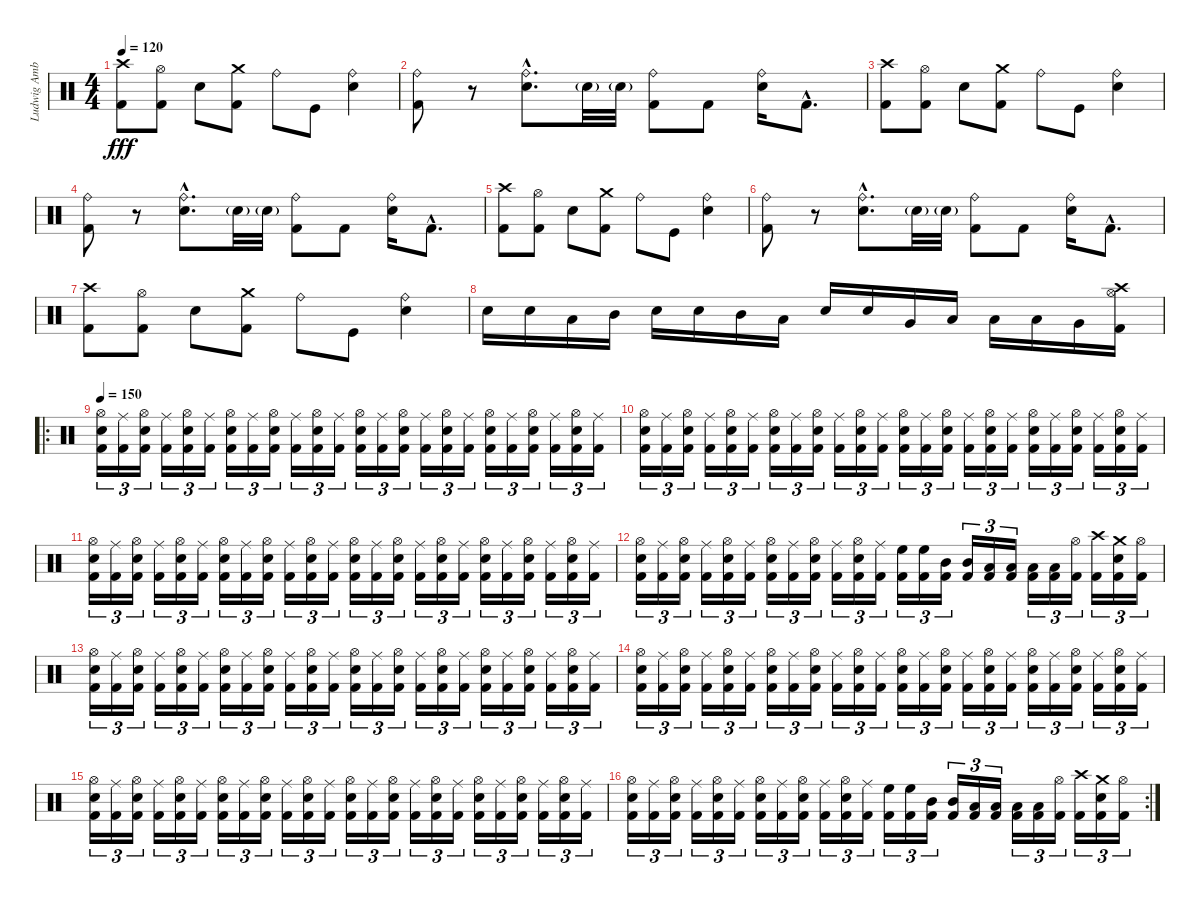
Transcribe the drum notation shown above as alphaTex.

\track ("Ludwig Amber Vistalite / 2x Bass Pedal" "Ludwig Amb") {instrument percussion}
\staff {score}
\articulation defaults
\ts (4 4)
\tempo 120
\clef neutral
\ks c
("Crash high (hit)" "Kick (hit) 2").8{dy fff balance 5} ("Hi-Hat (open)" "Kick (hit) 2").8 "Electric Snare (hit)".8 ("Crash medium (hit)" "Kick (hit) 2").8 "Ride (bell)".8 "Kick (hit)".8 ("Ride (bell)" "Electric Snare (hit)").4 |
("Ride (bell)" "Kick (hit) 2").8 r.8 ("Ride (bell)"{hac} "Electric Snare (hit)"{hac}).8{d} "Electric Snare (hit)"{g}.32 "Electric Snare (hit)"{g}.32 ("Ride (bell)" "Kick (hit) 2").8 "Kick (hit) 2".8 ("Ride (bell)" "Electric Snare (hit)").16 "Kick (hit) 2"{hac}.8{d} |
("Crash high (hit)" "Kick (hit) 2").8 ("Hi-Hat (open)" "Kick (hit) 2").8 "Electric Snare (hit)".8 ("Crash medium (hit)" "Kick (hit) 2").8 "Ride (bell)".8 "Kick (hit)".8 ("Ride (bell)" "Electric Snare (hit)").4 |
("Ride (bell)" "Kick (hit) 2").8 r.8 ("Ride (bell)"{hac} "Electric Snare (hit)"{hac}).8{d} "Electric Snare (hit)"{g}.32 "Electric Snare (hit)"{g}.32 ("Ride (bell)" "Kick (hit) 2").8 "Kick (hit) 2".8 ("Ride (bell)" "Electric Snare (hit)").16 "Kick (hit) 2"{hac}.8{d} |
("Crash high (hit)" "Kick (hit) 2").8 ("Hi-Hat (open)" "Kick (hit) 2").8 "Electric Snare (hit)".8 ("Crash medium (hit)" "Kick (hit) 2").8 "Ride (bell)".8 "Kick (hit)".8 ("Ride (bell)" "Electric Snare (hit)").4 |
("Ride (bell)" "Kick (hit) 2").8 r.8 ("Ride (bell)"{hac} "Electric Snare (hit)"{hac}).8{d} "Electric Snare (hit)"{g}.32 "Electric Snare (hit)"{g}.32 ("Ride (bell)" "Kick (hit) 2").8 "Kick (hit) 2".8 ("Ride (bell)" "Electric Snare (hit)").16 "Kick (hit) 2"{hac}.8{d} |
("Crash high (hit)" "Kick (hit) 2").8 ("Hi-Hat (open)" "Kick (hit) 2").8 "Electric Snare (hit)".8 ("Crash medium (hit)" "Kick (hit) 2").8 "Ride (bell)".8 "Kick (hit)".8 ("Ride (bell)" "Electric Snare (hit)").4 |
"Electric Snare (hit)".16 "Electric Snare (hit)".16 "Low Tom (hit)".16 "Mid Tom (hit)".16 "Electric Snare (hit)".16 "Electric Snare (hit)".16 "Mid Tom (hit)".16 "Low Tom (hit)".16 "Electric Snare (hit)".16 "Electric Snare (hit)".16 "Very Low Tom (hit)".16 "Low Floor Tom (hit)".16 "Low Tom (hit)".16 "Low Tom (hit)".16 "Very Low Tom (hit)".16 ("Hi-Hat (open)" "Crash high (hit)" "Kick (hit) 2").16 |
\ro
\tempo 150
("Hi-Hat (open)" "Electric Snare (hit)" "Kick (hit) 2").16{tu (3 2)} ("Ride (middle)" "Kick (hit) 2").16{tu (3 2)} ("Hi-Hat (open)" "Electric Snare (hit)" "Kick (hit) 2").16{tu (3 2)} ("Ride (middle)" "Kick (hit) 2").16{tu (3 2)} ("Hi-Hat (open)" "Electric Snare (hit)" "Kick (hit) 2").16{tu (3 2)} ("Ride (middle)" "Kick (hit) 2").16{tu (3 2)} ("Hi-Hat (open)" "Electric Snare (hit)" "Kick (hit) 2").16{tu (3 2)} ("Ride (middle)" "Kick (hit) 2").16{tu (3 2)} ("Hi-Hat (open)" "Electric Snare (hit)" "Kick (hit) 2").16{tu (3 2)} ("Ride (middle)" "Kick (hit) 2").16{tu (3 2)} ("Hi-Hat (open)" "Electric Snare (hit)" "Kick (hit) 2").16{tu (3 2)} ("Ride (middle)" "Kick (hit) 2").16{tu (3 2)} ("Hi-Hat (open)" "Electric Snare (hit)" "Kick (hit) 2").16{tu (3 2)} ("Ride (middle)" "Kick (hit) 2").16{tu (3 2)} ("Hi-Hat (open)" "Electric Snare (hit)" "Kick (hit) 2").16{tu (3 2)} ("Ride (middle)" "Kick (hit) 2").16{tu (3 2)} ("Hi-Hat (open)" "Electric Snare (hit)" "Kick (hit) 2").16{tu (3 2)} ("Ride (middle)" "Kick (hit) 2").16{tu (3 2)} ("Hi-Hat (open)" "Electric Snare (hit)" "Kick (hit) 2").16{tu (3 2)} ("Ride (middle)" "Kick (hit) 2").16{tu (3 2)} ("Hi-Hat (open)" "Electric Snare (hit)" "Kick (hit) 2").16{tu (3 2)} ("Ride (middle)" "Kick (hit) 2").16{tu (3 2)} ("Hi-Hat (open)" "Electric Snare (hit)" "Kick (hit) 2").16{tu (3 2)} ("Ride (middle)" "Kick (hit) 2").16{tu (3 2)} |
("Hi-Hat (open)" "Electric Snare (hit)" "Kick (hit) 2").16{tu (3 2)} ("Ride (middle)" "Kick (hit) 2").16{tu (3 2)} ("Hi-Hat (open)" "Electric Snare (hit)" "Kick (hit) 2").16{tu (3 2)} ("Ride (middle)" "Kick (hit) 2").16{tu (3 2)} ("Hi-Hat (open)" "Electric Snare (hit)" "Kick (hit) 2").16{tu (3 2)} ("Ride (middle)" "Kick (hit) 2").16{tu (3 2)} ("Hi-Hat (open)" "Electric Snare (hit)" "Kick (hit) 2").16{tu (3 2)} ("Ride (middle)" "Kick (hit) 2").16{tu (3 2)} ("Hi-Hat (open)" "Electric Snare (hit)" "Kick (hit) 2").16{tu (3 2)} ("Ride (middle)" "Kick (hit) 2").16{tu (3 2)} ("Hi-Hat (open)" "Electric Snare (hit)" "Kick (hit) 2").16{tu (3 2)} ("Ride (middle)" "Kick (hit) 2").16{tu (3 2)} ("Hi-Hat (open)" "Electric Snare (hit)" "Kick (hit) 2").16{tu (3 2)} ("Ride (middle)" "Kick (hit) 2").16{tu (3 2)} ("Hi-Hat (open)" "Electric Snare (hit)" "Kick (hit) 2").16{tu (3 2)} ("Ride (middle)" "Kick (hit) 2").16{tu (3 2)} ("Hi-Hat (open)" "Electric Snare (hit)" "Kick (hit) 2").16{tu (3 2)} ("Ride (middle)" "Kick (hit) 2").16{tu (3 2)} ("Hi-Hat (open)" "Electric Snare (hit)" "Kick (hit) 2").16{tu (3 2)} ("Ride (middle)" "Kick (hit) 2").16{tu (3 2)} ("Hi-Hat (open)" "Electric Snare (hit)" "Kick (hit) 2").16{tu (3 2)} ("Ride (middle)" "Kick (hit) 2").16{tu (3 2)} ("Hi-Hat (open)" "Electric Snare (hit)" "Kick (hit) 2").16{tu (3 2)} ("Ride (middle)" "Kick (hit) 2").16{tu (3 2)} |
("Hi-Hat (open)" "Electric Snare (hit)" "Kick (hit) 2").16{tu (3 2)} ("Ride (middle)" "Kick (hit) 2").16{tu (3 2)} ("Hi-Hat (open)" "Electric Snare (hit)" "Kick (hit) 2").16{tu (3 2)} ("Ride (middle)" "Kick (hit) 2").16{tu (3 2)} ("Hi-Hat (open)" "Electric Snare (hit)" "Kick (hit) 2").16{tu (3 2)} ("Ride (middle)" "Kick (hit) 2").16{tu (3 2)} ("Hi-Hat (open)" "Electric Snare (hit)" "Kick (hit) 2").16{tu (3 2)} ("Ride (middle)" "Kick (hit) 2").16{tu (3 2)} ("Hi-Hat (open)" "Electric Snare (hit)" "Kick (hit) 2").16{tu (3 2)} ("Ride (middle)" "Kick (hit) 2").16{tu (3 2)} ("Hi-Hat (open)" "Electric Snare (hit)" "Kick (hit) 2").16{tu (3 2)} ("Ride (middle)" "Kick (hit) 2").16{tu (3 2)} ("Hi-Hat (open)" "Electric Snare (hit)" "Kick (hit) 2").16{tu (3 2)} ("Ride (middle)" "Kick (hit) 2").16{tu (3 2)} ("Hi-Hat (open)" "Electric Snare (hit)" "Kick (hit) 2").16{tu (3 2)} ("Ride (middle)" "Kick (hit) 2").16{tu (3 2)} ("Hi-Hat (open)" "Electric Snare (hit)" "Kick (hit) 2").16{tu (3 2)} ("Ride (middle)" "Kick (hit) 2").16{tu (3 2)} ("Hi-Hat (open)" "Electric Snare (hit)" "Kick (hit) 2").16{tu (3 2)} ("Ride (middle)" "Kick (hit) 2").16{tu (3 2)} ("Hi-Hat (open)" "Electric Snare (hit)" "Kick (hit) 2").16{tu (3 2)} ("Ride (middle)" "Kick (hit) 2").16{tu (3 2)} ("Hi-Hat (open)" "Electric Snare (hit)" "Kick (hit) 2").16{tu (3 2)} ("Ride (middle)" "Kick (hit) 2").16{tu (3 2)} |
("Hi-Hat (open)" "Electric Snare (hit)" "Kick (hit) 2").16{tu (3 2)} ("Ride (middle)" "Kick (hit) 2").16{tu (3 2)} ("Hi-Hat (open)" "Electric Snare (hit)" "Kick (hit) 2").16{tu (3 2)} ("Ride (middle)" "Kick (hit) 2").16{tu (3 2)} ("Hi-Hat (open)" "Electric Snare (hit)" "Kick (hit) 2").16{tu (3 2)} ("Ride (middle)" "Kick (hit) 2").16{tu (3 2)} ("Hi-Hat (open)" "Electric Snare (hit)" "Kick (hit) 2").16{tu (3 2)} ("Ride (middle)" "Kick (hit) 2").16{tu (3 2)} ("Hi-Hat (open)" "Electric Snare (hit)" "Kick (hit) 2").16{tu (3 2)} ("Ride (middle)" "Kick (hit) 2").16{tu (3 2)} ("Hi-Hat (open)" "Electric Snare (hit)" "Kick (hit) 2").16{tu (3 2)} ("Ride (middle)" "Kick (hit) 2").16{tu (3 2)} ("High Floor Tom (hit)" "Kick (hit) 2").16{tu (3 2)} ("High Floor Tom (hit)" "Kick (hit) 2").16{tu (3 2)} ("Mid Tom (hit)" "Kick (hit) 2").16{tu (3 2)} ("Mid Tom (hit)" "Kick (hit) 2").16{tu (3 2)} ("Low Tom (hit)" "Kick (hit) 2").16{tu (3 2)} ("Low Tom (hit)" "Kick (hit) 2").16{tu (3 2)} ("Low Floor Tom (hit)" "Kick (hit) 2").16{tu (3 2)} ("Low Floor Tom (hit)" "Kick (hit) 2").16{tu (3 2)} ("Hi-Hat (open)" "Kick (hit) 2").16{tu (3 2)} ("Crash high (hit)" "Kick (hit) 2").16{tu (3 2)} ("Crash medium (hit)" "Electric Snare (hit)" "Kick (hit) 2").16{tu (3 2)} ("Hi-Hat (open)" "Kick (hit) 2").16{tu (3 2)} |
("Hi-Hat (open)" "Electric Snare (hit)" "Kick (hit) 2").16{tu (3 2)} ("Ride (middle)" "Kick (hit) 2").16{tu (3 2)} ("Hi-Hat (open)" "Electric Snare (hit)" "Kick (hit) 2").16{tu (3 2)} ("Ride (middle)" "Kick (hit) 2").16{tu (3 2)} ("Hi-Hat (open)" "Electric Snare (hit)" "Kick (hit) 2").16{tu (3 2)} ("Ride (middle)" "Kick (hit) 2").16{tu (3 2)} ("Hi-Hat (open)" "Electric Snare (hit)" "Kick (hit) 2").16{tu (3 2)} ("Ride (middle)" "Kick (hit) 2").16{tu (3 2)} ("Hi-Hat (open)" "Electric Snare (hit)" "Kick (hit) 2").16{tu (3 2)} ("Ride (middle)" "Kick (hit) 2").16{tu (3 2)} ("Hi-Hat (open)" "Electric Snare (hit)" "Kick (hit) 2").16{tu (3 2)} ("Ride (middle)" "Kick (hit) 2").16{tu (3 2)} ("Hi-Hat (open)" "Electric Snare (hit)" "Kick (hit) 2").16{tu (3 2)} ("Ride (middle)" "Kick (hit) 2").16{tu (3 2)} ("Hi-Hat (open)" "Electric Snare (hit)" "Kick (hit) 2").16{tu (3 2)} ("Ride (middle)" "Kick (hit) 2").16{tu (3 2)} ("Hi-Hat (open)" "Electric Snare (hit)" "Kick (hit) 2").16{tu (3 2)} ("Ride (middle)" "Kick (hit) 2").16{tu (3 2)} ("Hi-Hat (open)" "Electric Snare (hit)" "Kick (hit) 2").16{tu (3 2)} ("Ride (middle)" "Kick (hit) 2").16{tu (3 2)} ("Hi-Hat (open)" "Electric Snare (hit)" "Kick (hit) 2").16{tu (3 2)} ("Ride (middle)" "Kick (hit) 2").16{tu (3 2)} ("Hi-Hat (open)" "Electric Snare (hit)" "Kick (hit) 2").16{tu (3 2)} ("Ride (middle)" "Kick (hit) 2").16{tu (3 2)} |
("Hi-Hat (open)" "Electric Snare (hit)" "Kick (hit) 2").16{tu (3 2)} ("Ride (middle)" "Kick (hit) 2").16{tu (3 2)} ("Hi-Hat (open)" "Electric Snare (hit)" "Kick (hit) 2").16{tu (3 2)} ("Ride (middle)" "Kick (hit) 2").16{tu (3 2)} ("Hi-Hat (open)" "Electric Snare (hit)" "Kick (hit) 2").16{tu (3 2)} ("Ride (middle)" "Kick (hit) 2").16{tu (3 2)} ("Hi-Hat (open)" "Electric Snare (hit)" "Kick (hit) 2").16{tu (3 2)} ("Ride (middle)" "Kick (hit) 2").16{tu (3 2)} ("Hi-Hat (open)" "Electric Snare (hit)" "Kick (hit) 2").16{tu (3 2)} ("Ride (middle)" "Kick (hit) 2").16{tu (3 2)} ("Hi-Hat (open)" "Electric Snare (hit)" "Kick (hit) 2").16{tu (3 2)} ("Ride (middle)" "Kick (hit) 2").16{tu (3 2)} ("Hi-Hat (open)" "Electric Snare (hit)" "Kick (hit) 2").16{tu (3 2)} ("Ride (middle)" "Kick (hit) 2").16{tu (3 2)} ("Hi-Hat (open)" "Electric Snare (hit)" "Kick (hit) 2").16{tu (3 2)} ("Ride (middle)" "Kick (hit) 2").16{tu (3 2)} ("Hi-Hat (open)" "Electric Snare (hit)" "Kick (hit) 2").16{tu (3 2)} ("Ride (middle)" "Kick (hit) 2").16{tu (3 2)} ("Hi-Hat (open)" "Electric Snare (hit)" "Kick (hit) 2").16{tu (3 2)} ("Ride (middle)" "Kick (hit) 2").16{tu (3 2)} ("Hi-Hat (open)" "Electric Snare (hit)" "Kick (hit) 2").16{tu (3 2)} ("Ride (middle)" "Kick (hit) 2").16{tu (3 2)} ("Hi-Hat (open)" "Electric Snare (hit)" "Kick (hit) 2").16{tu (3 2)} ("Ride (middle)" "Kick (hit) 2").16{tu (3 2)} |
("Hi-Hat (open)" "Electric Snare (hit)" "Kick (hit) 2").16{tu (3 2)} ("Ride (middle)" "Kick (hit) 2").16{tu (3 2)} ("Hi-Hat (open)" "Electric Snare (hit)" "Kick (hit) 2").16{tu (3 2)} ("Ride (middle)" "Kick (hit) 2").16{tu (3 2)} ("Hi-Hat (open)" "Electric Snare (hit)" "Kick (hit) 2").16{tu (3 2)} ("Ride (middle)" "Kick (hit) 2").16{tu (3 2)} ("Hi-Hat (open)" "Electric Snare (hit)" "Kick (hit) 2").16{tu (3 2)} ("Ride (middle)" "Kick (hit) 2").16{tu (3 2)} ("Hi-Hat (open)" "Electric Snare (hit)" "Kick (hit) 2").16{tu (3 2)} ("Ride (middle)" "Kick (hit) 2").16{tu (3 2)} ("Hi-Hat (open)" "Electric Snare (hit)" "Kick (hit) 2").16{tu (3 2)} ("Ride (middle)" "Kick (hit) 2").16{tu (3 2)} ("Hi-Hat (open)" "Electric Snare (hit)" "Kick (hit) 2").16{tu (3 2)} ("Ride (middle)" "Kick (hit) 2").16{tu (3 2)} ("Hi-Hat (open)" "Electric Snare (hit)" "Kick (hit) 2").16{tu (3 2)} ("Ride (middle)" "Kick (hit) 2").16{tu (3 2)} ("Hi-Hat (open)" "Electric Snare (hit)" "Kick (hit) 2").16{tu (3 2)} ("Ride (middle)" "Kick (hit) 2").16{tu (3 2)} ("Hi-Hat (open)" "Electric Snare (hit)" "Kick (hit) 2").16{tu (3 2)} ("Ride (middle)" "Kick (hit) 2").16{tu (3 2)} ("Hi-Hat (open)" "Electric Snare (hit)" "Kick (hit) 2").16{tu (3 2)} ("Ride (middle)" "Kick (hit) 2").16{tu (3 2)} ("Hi-Hat (open)" "Electric Snare (hit)" "Kick (hit) 2").16{tu (3 2)} ("Ride (middle)" "Kick (hit) 2").16{tu (3 2)} |
\rc 2
("Hi-Hat (open)" "Electric Snare (hit)" "Kick (hit) 2").16{tu (3 2)} ("Ride (middle)" "Kick (hit) 2").16{tu (3 2)} ("Hi-Hat (open)" "Electric Snare (hit)" "Kick (hit) 2").16{tu (3 2)} ("Ride (middle)" "Kick (hit) 2").16{tu (3 2)} ("Hi-Hat (open)" "Electric Snare (hit)" "Kick (hit) 2").16{tu (3 2)} ("Ride (middle)" "Kick (hit) 2").16{tu (3 2)} ("Hi-Hat (open)" "Electric Snare (hit)" "Kick (hit) 2").16{tu (3 2)} ("Ride (middle)" "Kick (hit) 2").16{tu (3 2)} ("Hi-Hat (open)" "Electric Snare (hit)" "Kick (hit) 2").16{tu (3 2)} ("Ride (middle)" "Kick (hit) 2").16{tu (3 2)} ("Hi-Hat (open)" "Electric Snare (hit)" "Kick (hit) 2").16{tu (3 2)} ("Ride (middle)" "Kick (hit) 2").16{tu (3 2)} ("High Floor Tom (hit)" "Kick (hit) 2").16{tu (3 2)} ("High Floor Tom (hit)" "Kick (hit) 2").16{tu (3 2)} ("Mid Tom (hit)" "Kick (hit) 2").16{tu (3 2)} ("Mid Tom (hit)" "Kick (hit) 2").16{tu (3 2)} ("Low Tom (hit)" "Kick (hit) 2").16{tu (3 2)} ("Low Tom (hit)" "Kick (hit) 2").16{tu (3 2)} ("Low Floor Tom (hit)" "Kick (hit) 2").16{tu (3 2)} ("Low Floor Tom (hit)" "Kick (hit) 2").16{tu (3 2)} ("Hi-Hat (open)" "Kick (hit) 2").16{tu (3 2)} ("Crash high (hit)" "Kick (hit) 2").16{tu (3 2)} ("Crash medium (hit)" "Electric Snare (hit)" "Kick (hit) 2").16{tu (3 2)} ("Hi-Hat (open)" "Kick (hit) 2").16{tu (3 2)}
